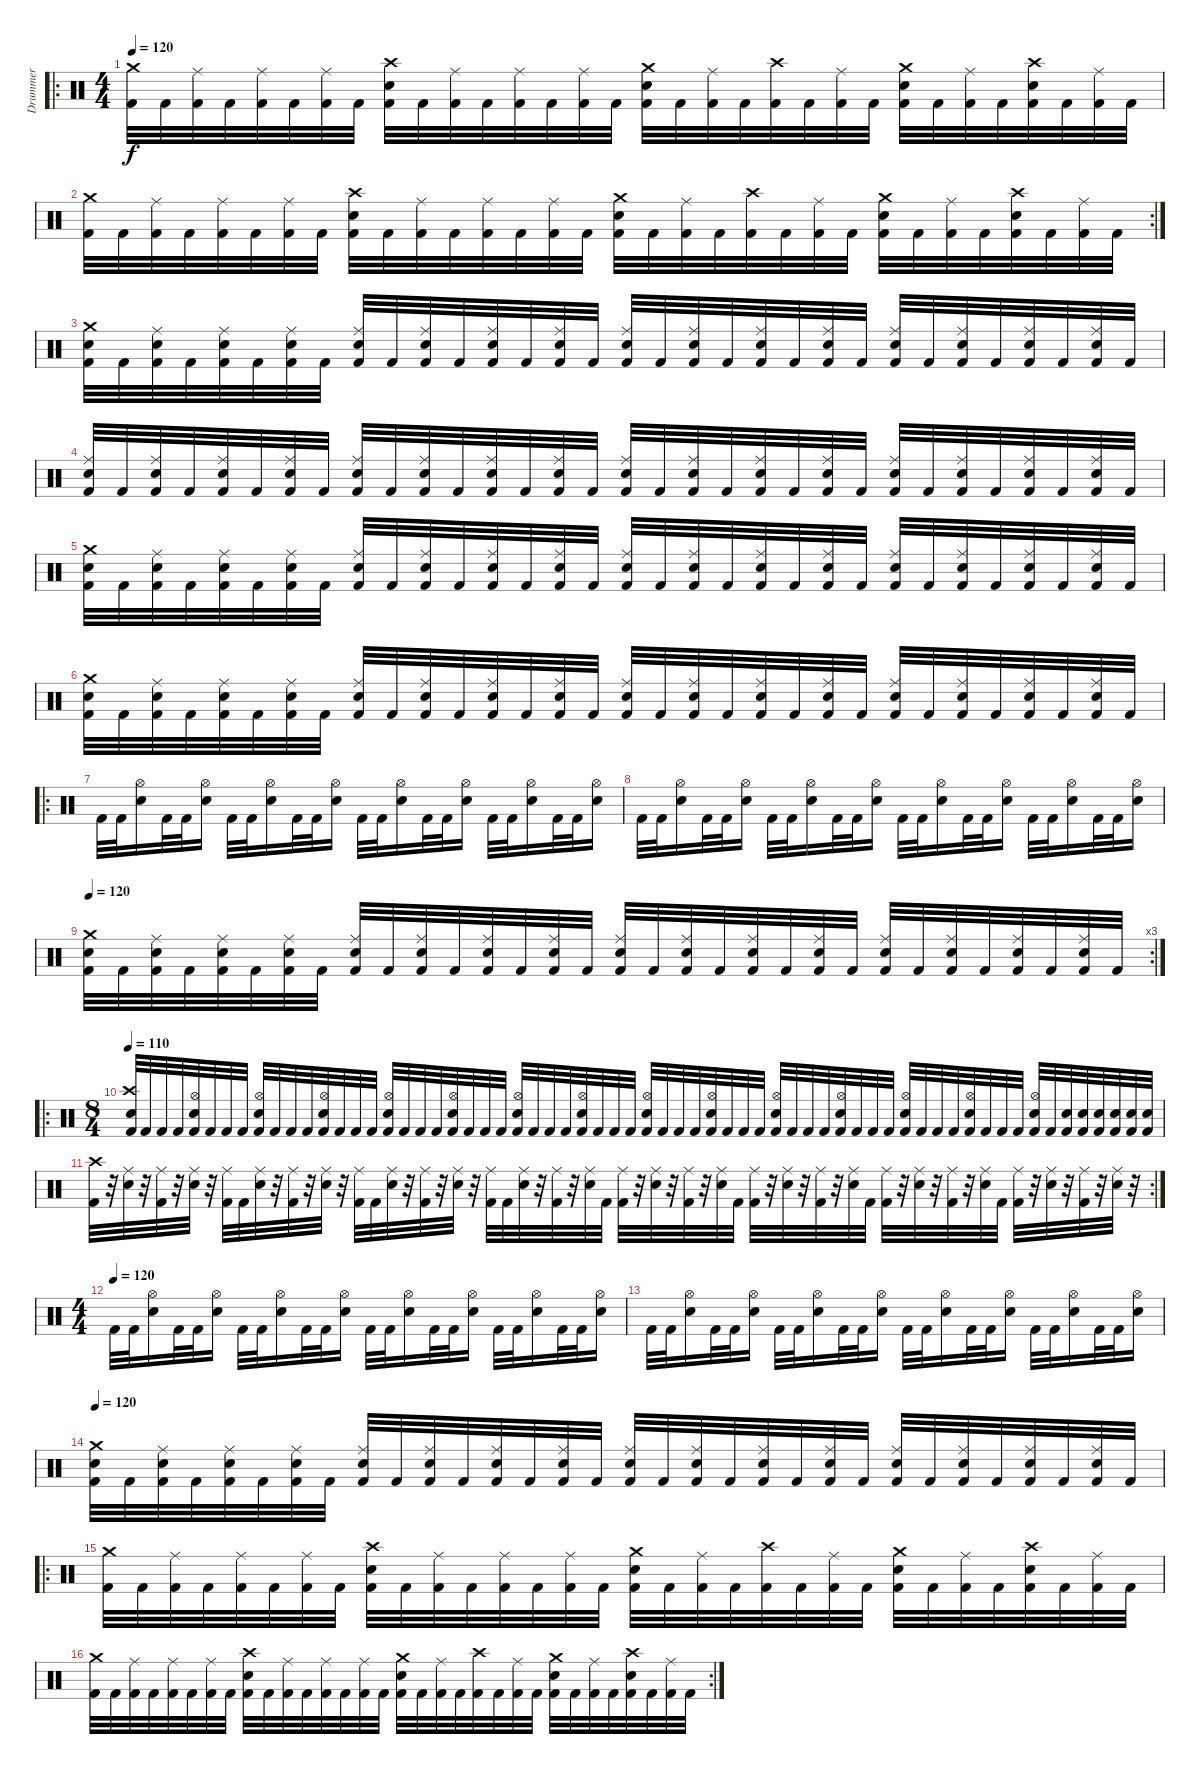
\track ("Drummer" "Drummer") {instrument percussion}
\staff {score}
\articulation defaults
\ro
\ts (4 4)
\tempo 120
\clef neutral
\ks c
("Crash medium (hit)" "Kick (hit) 2").32{dy f} "Kick (hit) 2".32 ("Ride (middle)" "Kick (hit) 2").32 "Kick (hit) 2".32 ("Ride (middle)" "Kick (hit) 2").32 "Kick (hit) 2".32 ("Ride (middle)" "Kick (hit) 2").32 "Kick (hit) 2".32 ("Crash high (hit)" "Electric Snare (hit)" "Kick (hit) 2").32 "Kick (hit) 2".32 ("Ride (middle)" "Kick (hit) 2").32 "Kick (hit) 2".32 ("Ride (middle)" "Kick (hit) 2").32 "Kick (hit) 2".32 ("Ride (middle)" "Kick (hit) 2").32 "Kick (hit) 2".32 ("Crash medium (hit)" "Electric Snare (hit)" "Kick (hit) 2").32 "Kick (hit) 2".32 ("Ride (middle)" "Kick (hit) 2").32 "Kick (hit) 2".32 ("Crash high (hit)" "Kick (hit) 2").32 "Kick (hit) 2".32 ("Ride (middle)" "Kick (hit) 2").32 "Kick (hit) 2".32 ("Crash medium (hit)" "Electric Snare (hit)" "Kick (hit) 2").32 "Kick (hit) 2".32 ("Ride (middle)" "Kick (hit) 2").32 "Kick (hit) 2".32 ("Crash high (hit)" "Electric Snare (hit)" "Kick (hit) 2").32 "Kick (hit) 2".32 ("Ride (middle)" "Kick (hit) 2").32 "Kick (hit) 2".32 |
\rc 2
("Crash medium (hit)" "Kick (hit) 2").32 "Kick (hit) 2".32 ("Ride (middle)" "Kick (hit) 2").32 "Kick (hit) 2".32 ("Ride (middle)" "Kick (hit) 2").32 "Kick (hit) 2".32 ("Ride (middle)" "Kick (hit) 2").32 "Kick (hit) 2".32 ("Crash high (hit)" "Electric Snare (hit)" "Kick (hit) 2").32 "Kick (hit) 2".32 ("Ride (middle)" "Kick (hit) 2").32 "Kick (hit) 2".32 ("Ride (middle)" "Kick (hit) 2").32 "Kick (hit) 2".32 ("Ride (middle)" "Kick (hit) 2").32 "Kick (hit) 2".32 ("Crash medium (hit)" "Electric Snare (hit)" "Kick (hit) 2").32 "Kick (hit) 2".32 ("Ride (middle)" "Kick (hit) 2").32 "Kick (hit) 2".32 ("Crash high (hit)" "Kick (hit) 2").32 "Kick (hit) 2".32 ("Ride (middle)" "Kick (hit) 2").32 "Kick (hit) 2".32 ("Crash medium (hit)" "Electric Snare (hit)" "Kick (hit) 2").32 "Kick (hit) 2".32 ("Ride (middle)" "Kick (hit) 2").32 "Kick (hit) 2".32 ("Crash high (hit)" "Electric Snare (hit)" "Kick (hit) 2").32 "Kick (hit) 2".32 ("Ride (middle)" "Kick (hit) 2").32 "Kick (hit) 2".32 |
("Crash medium (hit)" "Electric Snare (hit)" "Kick (hit) 2").32 "Kick (hit) 2".32 ("Ride (middle)" "Electric Snare (hit)" "Kick (hit) 2").32 "Kick (hit) 2".32 ("Ride (middle)" "Electric Snare (hit)" "Kick (hit) 2").32 "Kick (hit) 2".32 ("Ride (middle)" "Electric Snare (hit)" "Kick (hit) 2").32 "Kick (hit) 2".32 ("Ride (middle)" "Electric Snare (hit)" "Kick (hit) 2").32 "Kick (hit) 2".32 ("Ride (middle)" "Electric Snare (hit)" "Kick (hit) 2").32 "Kick (hit) 2".32 ("Ride (middle)" "Electric Snare (hit)" "Kick (hit) 2").32 "Kick (hit) 2".32 ("Ride (middle)" "Electric Snare (hit)" "Kick (hit) 2").32 "Kick (hit) 2".32 ("Ride (middle)" "Electric Snare (hit)" "Kick (hit) 2").32 "Kick (hit) 2".32 ("Ride (middle)" "Electric Snare (hit)" "Kick (hit) 2").32 "Kick (hit) 2".32 ("Ride (middle)" "Electric Snare (hit)" "Kick (hit) 2").32 "Kick (hit) 2".32 ("Ride (middle)" "Electric Snare (hit)" "Kick (hit) 2").32 "Kick (hit) 2".32 ("Ride (middle)" "Electric Snare (hit)" "Kick (hit) 2").32 "Kick (hit) 2".32 ("Ride (middle)" "Electric Snare (hit)" "Kick (hit) 2").32 "Kick (hit) 2".32 ("Ride (middle)" "Electric Snare (hit)" "Kick (hit) 2").32 "Kick (hit) 2".32 ("Ride (middle)" "Electric Snare (hit)" "Kick (hit) 2").32 "Kick (hit) 2".32 |
("Ride (middle)" "Electric Snare (hit)" "Kick (hit) 2").32 "Kick (hit) 2".32 ("Ride (middle)" "Electric Snare (hit)" "Kick (hit) 2").32 "Kick (hit) 2".32 ("Ride (middle)" "Electric Snare (hit)" "Kick (hit) 2").32 "Kick (hit) 2".32 ("Ride (middle)" "Electric Snare (hit)" "Kick (hit) 2").32 "Kick (hit) 2".32 ("Ride (middle)" "Electric Snare (hit)" "Kick (hit) 2").32 "Kick (hit) 2".32 ("Ride (middle)" "Electric Snare (hit)" "Kick (hit) 2").32 "Kick (hit) 2".32 ("Ride (middle)" "Electric Snare (hit)" "Kick (hit) 2").32 "Kick (hit) 2".32 ("Ride (middle)" "Electric Snare (hit)" "Kick (hit) 2").32 "Kick (hit) 2".32 ("Ride (middle)" "Electric Snare (hit)" "Kick (hit) 2").32 "Kick (hit) 2".32 ("Ride (middle)" "Electric Snare (hit)" "Kick (hit) 2").32 "Kick (hit) 2".32 ("Ride (middle)" "Electric Snare (hit)" "Kick (hit) 2").32 "Kick (hit) 2".32 ("Ride (middle)" "Electric Snare (hit)" "Kick (hit) 2").32 "Kick (hit) 2".32 ("Ride (middle)" "Electric Snare (hit)" "Kick (hit) 2").32 "Kick (hit) 2".32 ("Ride (middle)" "Electric Snare (hit)" "Kick (hit) 2").32 "Kick (hit) 2".32 ("Ride (middle)" "Electric Snare (hit)" "Kick (hit) 2").32 "Kick (hit) 2".32 ("Ride (middle)" "Electric Snare (hit)" "Kick (hit) 2").32 "Kick (hit) 2".32 |
("Crash medium (hit)" "Electric Snare (hit)" "Kick (hit) 2").32 "Kick (hit) 2".32 ("Ride (middle)" "Electric Snare (hit)" "Kick (hit) 2").32 "Kick (hit) 2".32 ("Ride (middle)" "Electric Snare (hit)" "Kick (hit) 2").32 "Kick (hit) 2".32 ("Ride (middle)" "Electric Snare (hit)" "Kick (hit) 2").32 "Kick (hit) 2".32 ("Ride (middle)" "Electric Snare (hit)" "Kick (hit) 2").32 "Kick (hit) 2".32 ("Ride (middle)" "Electric Snare (hit)" "Kick (hit) 2").32 "Kick (hit) 2".32 ("Ride (middle)" "Electric Snare (hit)" "Kick (hit) 2").32 "Kick (hit) 2".32 ("Ride (middle)" "Electric Snare (hit)" "Kick (hit) 2").32 "Kick (hit) 2".32 ("Ride (middle)" "Electric Snare (hit)" "Kick (hit) 2").32 "Kick (hit) 2".32 ("Ride (middle)" "Electric Snare (hit)" "Kick (hit) 2").32 "Kick (hit) 2".32 ("Ride (middle)" "Electric Snare (hit)" "Kick (hit) 2").32 "Kick (hit) 2".32 ("Ride (middle)" "Electric Snare (hit)" "Kick (hit) 2").32 "Kick (hit) 2".32 ("Ride (middle)" "Electric Snare (hit)" "Kick (hit) 2").32 "Kick (hit) 2".32 ("Ride (middle)" "Electric Snare (hit)" "Kick (hit) 2").32 "Kick (hit) 2".32 ("Ride (middle)" "Electric Snare (hit)" "Kick (hit) 2").32 "Kick (hit) 2".32 ("Ride (middle)" "Electric Snare (hit)" "Kick (hit) 2").32 "Kick (hit) 2".32 |
("Crash medium (hit)" "Electric Snare (hit)" "Kick (hit) 2").32 "Kick (hit) 2".32 ("Ride (middle)" "Electric Snare (hit)" "Kick (hit) 2").32 "Kick (hit) 2".32 ("Ride (middle)" "Electric Snare (hit)" "Kick (hit) 2").32 "Kick (hit) 2".32 ("Ride (middle)" "Electric Snare (hit)" "Kick (hit) 2").32 "Kick (hit) 2".32 ("Ride (middle)" "Electric Snare (hit)" "Kick (hit) 2").32 "Kick (hit) 2".32 ("Ride (middle)" "Electric Snare (hit)" "Kick (hit) 2").32 "Kick (hit) 2".32 ("Ride (middle)" "Electric Snare (hit)" "Kick (hit) 2").32 "Kick (hit) 2".32 ("Ride (middle)" "Electric Snare (hit)" "Kick (hit) 2").32 "Kick (hit) 2".32 ("Ride (middle)" "Electric Snare (hit)" "Kick (hit) 2").32 "Kick (hit) 2".32 ("Ride (middle)" "Electric Snare (hit)" "Kick (hit) 2").32 "Kick (hit) 2".32 ("Ride (middle)" "Electric Snare (hit)" "Kick (hit) 2").32 "Kick (hit) 2".32 ("Ride (middle)" "Electric Snare (hit)" "Kick (hit) 2").32 "Kick (hit) 2".32 ("Ride (middle)" "Electric Snare (hit)" "Kick (hit) 2").32 "Kick (hit) 2".32 ("Ride (middle)" "Electric Snare (hit)" "Kick (hit) 2").32 "Kick (hit) 2".32 ("Ride (middle)" "Electric Snare (hit)" "Kick (hit) 2").32 "Kick (hit) 2".32 ("Ride (middle)" "Electric Snare (hit)" "Kick (hit) 2").32 "Kick (hit) 2".32 |
\ro "Kick (hit) 2".32 "Kick (hit) 2".32
("Hi-Hat (open)" "Snare (hit) 2").16 "Kick (hit) 2".32 "Kick (hit) 2".32 ("Hi-Hat (open)" "Snare (hit) 2").16 "Kick (hit) 2".32 "Kick (hit) 2".32 ("Snare (hit) 2" "Hi-Hat (open)").16 "Kick (hit) 2".32 "Kick (hit) 2".32 ("Hi-Hat (open)" "Snare (hit) 2").16 "Kick (hit) 2".32 "Kick (hit) 2".32 ("Hi-Hat (open)" "Snare (hit) 2").16 "Kick (hit) 2".32 "Kick (hit) 2".32 ("Hi-Hat (open)" "Snare (hit) 2").16 "Kick (hit) 2".32 "Kick (hit) 2".32 ("Hi-Hat (open)" "Snare (hit) 2").16 "Kick (hit) 2".32 "Kick (hit) 2".32 ("Hi-Hat (open)" "Snare (hit) 2").16 |
"Kick (hit) 2".32 "Kick (hit) 2".32 ("Hi-Hat (open)" "Snare (hit) 2").16 "Kick (hit) 2".32 "Kick (hit) 2".32 ("Hi-Hat (open)" "Snare (hit) 2").16 "Kick (hit) 2".32 "Kick (hit) 2".32 ("Snare (hit) 2" "Hi-Hat (open)").16 "Kick (hit) 2".32 "Kick (hit) 2".32 ("Hi-Hat (open)" "Snare (hit) 2").16 "Kick (hit) 2".32 "Kick (hit) 2".32 ("Hi-Hat (open)" "Snare (hit) 2").16 "Kick (hit) 2".32 "Kick (hit) 2".32 ("Hi-Hat (open)" "Snare (hit) 2").16 "Kick (hit) 2".32 "Kick (hit) 2".32 ("Hi-Hat (open)" "Snare (hit) 2").16 "Kick (hit) 2".32 "Kick (hit) 2".32 ("Hi-Hat (open)" "Snare (hit) 2").16 |
\rc 3
\tempo 120
("Crash medium (hit)" "Electric Snare (hit)" "Kick (hit) 2").32 "Kick (hit) 2".32 ("Ride (middle)" "Electric Snare (hit)" "Kick (hit) 2").32 "Kick (hit) 2".32 ("Ride (middle)" "Electric Snare (hit)" "Kick (hit) 2").32 "Kick (hit) 2".32 ("Ride (middle)" "Electric Snare (hit)" "Kick (hit) 2").32 "Kick (hit) 2".32 ("Ride (middle)" "Electric Snare (hit)" "Kick (hit) 2").32 "Kick (hit) 2".32 ("Ride (middle)" "Electric Snare (hit)" "Kick (hit) 2").32 "Kick (hit) 2".32 ("Ride (middle)" "Electric Snare (hit)" "Kick (hit) 2").32 "Kick (hit) 2".32 ("Ride (middle)" "Electric Snare (hit)" "Kick (hit) 2").32 "Kick (hit) 2".32 ("Ride (middle)" "Electric Snare (hit)" "Kick (hit) 2").32 "Kick (hit) 2".32 ("Ride (middle)" "Electric Snare (hit)" "Kick (hit) 2").32 "Kick (hit) 2".32 ("Ride (middle)" "Electric Snare (hit)" "Kick (hit) 2").32 "Kick (hit) 2".32 ("Ride (middle)" "Electric Snare (hit)" "Kick (hit) 2").32 "Kick (hit) 2".32 ("Ride (middle)" "Electric Snare (hit)" "Kick (hit) 2").32 "Kick (hit) 2".32 ("Ride (middle)" "Electric Snare (hit)" "Kick (hit) 2").32 "Kick (hit) 2".32 ("Ride (middle)" "Electric Snare (hit)" "Kick (hit) 2").32 "Kick (hit) 2".32 ("Ride (middle)" "Electric Snare (hit)" "Kick (hit) 2").32 "Kick (hit) 2".32 |
\ro
\ts (8 4)
\tempo 110
("Crash high (hit)" "Snare (hit) 2" "Kick (hit) 2").32 "Kick (hit) 2".32 "Kick (hit) 2".32 "Kick (hit) 2".32 ("Hi-Hat (open)" "Snare (hit) 2" "Kick (hit) 2").32 "Kick (hit) 2".32 "Kick (hit) 2".32 "Kick (hit) 2".32 ("Hi-Hat (open)" "Snare (hit) 2" "Kick (hit) 2").32 "Kick (hit) 2".32 "Kick (hit) 2".32 "Kick (hit) 2".32 ("Hi-Hat (open)" "Snare (hit) 2" "Kick (hit) 2").32 "Kick (hit) 2".32 "Kick (hit) 2".32 "Kick (hit) 2".32 ("Hi-Hat (open)" "Snare (hit) 2" "Kick (hit) 2").32 "Kick (hit) 2".32 "Kick (hit) 2".32 "Kick (hit) 2".32 ("Hi-Hat (open)" "Snare (hit) 2" "Kick (hit) 2").32 "Kick (hit) 2".32 "Kick (hit) 2".32 "Kick (hit) 2".32 ("Hi-Hat (open)" "Snare (hit) 2" "Kick (hit) 2").32 "Kick (hit) 2".32 "Kick (hit) 2".32 "Kick (hit) 2".32 ("Hi-Hat (open)" "Snare (hit) 2" "Kick (hit) 2").32 "Kick (hit) 2".32 "Kick (hit) 2".32 "Kick (hit) 2".32 ("Hi-Hat (open)" "Snare (hit) 2" "Kick (hit) 2").32 "Kick (hit) 2".32 "Kick (hit) 2".32 "Kick (hit) 2".32 ("Hi-Hat (open)" "Snare (hit) 2" "Kick (hit) 2").32 "Kick (hit) 2".32 "Kick (hit) 2".32 "Kick (hit) 2".32 ("Hi-Hat (open)" "Snare (hit) 2" "Kick (hit) 2").32 "Kick (hit) 2".32 "Kick (hit) 2".32 "Kick (hit) 2".32 ("Hi-Hat (open)" "Snare (hit) 2" "Kick (hit) 2").32 "Kick (hit) 2".32 "Kick (hit) 2".32 "Kick (hit) 2".32 ("Hi-Hat (open)" "Snare (hit) 2" "Kick (hit) 2").32 "Kick (hit) 2".32 "Kick (hit) 2".32 "Kick (hit) 2".32 ("Hi-Hat (open)" "Snare (hit) 2" "Kick (hit) 2").32 "Kick (hit) 2".32 "Kick (hit) 2".32 "Kick (hit) 2".32 ("Hi-Hat (open)" "Snare (hit) 2" "Kick (hit) 2").32 "Kick (hit) 2".32 ("Snare (hit) 2" "Kick (hit) 2").32 ("Snare (hit) 2" "Kick (hit) 2").32 ("Snare (hit) 2" "Kick (hit) 2").32 ("Snare (hit) 2" "Kick (hit) 2").32 ("Snare (hit) 2" "Kick (hit) 2").32 ("Snare (hit) 2" "Kick (hit) 2").32 |
\rc 2
("Crash high (hit)" "Kick (hit) 2").32 r.32 ("Ride (middle)" "Snare (hit) 2").32 r.32 ("Ride (middle)" "Kick (hit) 2").32 r.32 ("Ride (middle)" "Snare (hit) 2").32 r.32 ("Ride (middle)" "Kick (hit) 2").32 "Kick (hit) 2".32 ("Ride (middle)" "Snare (hit) 2").32 r.32 ("Ride (middle)" "Kick (hit) 2").32 r.32 ("Ride (middle)" "Snare (hit) 2").32 r.32 ("Ride (middle)" "Kick (hit) 2").32 "Kick (hit) 2".32 ("Ride (middle)" "Snare (hit) 2").32 r.32 ("Ride (middle)" "Kick (hit) 2").32 r.32 ("Ride (middle)" "Snare (hit) 2").32 r.32 ("Ride (middle)" "Kick (hit) 2").32 "Kick (hit) 2".32 ("Ride (middle)" "Snare (hit) 2").32 r.32 ("Ride (middle)" "Kick (hit) 2").32 r.32 ("Ride (middle)" "Snare (hit) 2").32 "Kick (hit) 2".32 ("Ride (middle)" "Kick (hit) 2").32 r.32 ("Ride (middle)" "Snare (hit) 2").32 r.32 ("Ride (middle)" "Kick (hit) 2").32 r.32 ("Ride (middle)" "Snare (hit) 2").32 "Kick (hit) 2".32 ("Ride (middle)" "Kick (hit) 2").32 r.32 ("Ride (middle)" "Snare (hit) 2").32 r.32 ("Ride (middle)" "Kick (hit) 2").32 r.32 ("Ride (middle)" "Snare (hit) 2").32 "Kick (hit) 2".32 ("Ride (middle)" "Kick (hit) 2").32 r.32 ("Ride (middle)" "Snare (hit) 2").32 r.32 ("Ride (middle)" "Kick (hit) 2").32 r.32 ("Ride (middle)" "Snare (hit) 2").32 "Kick (hit) 2".32 ("Ride (middle)" "Kick (hit) 2").32 r.32 ("Ride (middle)" "Snare (hit) 2").32 r.32 ("Ride (middle)" "Kick (hit) 2").32 r.32 ("Ride (middle)" "Snare (hit) 2").32 r.32 |
\ts (4 4)
\tempo (120)
"Kick (hit) 2".32 "Kick (hit) 2".32 ("Hi-Hat (open)" "Snare (hit) 2").16 "Kick (hit) 2".32 "Kick (hit) 2".32 ("Hi-Hat (open)" "Snare (hit) 2").16 "Kick (hit) 2".32 "Kick (hit) 2".32 ("Snare (hit) 2" "Hi-Hat (open)").16 "Kick (hit) 2".32 "Kick (hit) 2".32 ("Hi-Hat (open)" "Snare (hit) 2").16 "Kick (hit) 2".32 "Kick (hit) 2".32 ("Hi-Hat (open)" "Snare (hit) 2").16 "Kick (hit) 2".32 "Kick (hit) 2".32 ("Hi-Hat (open)" "Snare (hit) 2").16 "Kick (hit) 2".32 "Kick (hit) 2".32 ("Hi-Hat (open)" "Snare (hit) 2").16 "Kick (hit) 2".32 "Kick (hit) 2".32 ("Hi-Hat (open)" "Snare (hit) 2").16 |
"Kick (hit) 2".32 "Kick (hit) 2".32 ("Hi-Hat (open)" "Snare (hit) 2").16 "Kick (hit) 2".32 "Kick (hit) 2".32 ("Hi-Hat (open)" "Snare (hit) 2").16 "Kick (hit) 2".32 "Kick (hit) 2".32 ("Snare (hit) 2" "Hi-Hat (open)").16 "Kick (hit) 2".32 "Kick (hit) 2".32 ("Hi-Hat (open)" "Snare (hit) 2").16 "Kick (hit) 2".32 "Kick (hit) 2".32 ("Hi-Hat (open)" "Snare (hit) 2").16 "Kick (hit) 2".32 "Kick (hit) 2".32 ("Hi-Hat (open)" "Snare (hit) 2").16 "Kick (hit) 2".32 "Kick (hit) 2".32 ("Hi-Hat (open)" "Snare (hit) 2").16 "Kick (hit) 2".32 "Kick (hit) 2".32 ("Hi-Hat (open)" "Snare (hit) 2").16 |
\tempo 120
("Crash medium (hit)" "Electric Snare (hit)" "Kick (hit) 2").32 "Kick (hit) 2".32 ("Ride (middle)" "Electric Snare (hit)" "Kick (hit) 2").32 "Kick (hit) 2".32 ("Ride (middle)" "Electric Snare (hit)" "Kick (hit) 2").32 "Kick (hit) 2".32 ("Ride (middle)" "Electric Snare (hit)" "Kick (hit) 2").32 "Kick (hit) 2".32 ("Ride (middle)" "Electric Snare (hit)" "Kick (hit) 2").32 "Kick (hit) 2".32 ("Ride (middle)" "Electric Snare (hit)" "Kick (hit) 2").32 "Kick (hit) 2".32 ("Ride (middle)" "Electric Snare (hit)" "Kick (hit) 2").32 "Kick (hit) 2".32 ("Ride (middle)" "Electric Snare (hit)" "Kick (hit) 2").32 "Kick (hit) 2".32 ("Ride (middle)" "Electric Snare (hit)" "Kick (hit) 2").32 "Kick (hit) 2".32 ("Ride (middle)" "Electric Snare (hit)" "Kick (hit) 2").32 "Kick (hit) 2".32 ("Ride (middle)" "Electric Snare (hit)" "Kick (hit) 2").32 "Kick (hit) 2".32 ("Ride (middle)" "Electric Snare (hit)" "Kick (hit) 2").32 "Kick (hit) 2".32 ("Ride (middle)" "Electric Snare (hit)" "Kick (hit) 2").32 "Kick (hit) 2".32 ("Ride (middle)" "Electric Snare (hit)" "Kick (hit) 2").32 "Kick (hit) 2".32 ("Ride (middle)" "Electric Snare (hit)" "Kick (hit) 2").32 "Kick (hit) 2".32 ("Ride (middle)" "Electric Snare (hit)" "Kick (hit) 2").32 "Kick (hit) 2".32 |
\ro
("Crash medium (hit)" "Kick (hit) 2").32 "Kick (hit) 2".32 ("Ride (middle)" "Kick (hit) 2").32 "Kick (hit) 2".32 ("Ride (middle)" "Kick (hit) 2").32 "Kick (hit) 2".32 ("Ride (middle)" "Kick (hit) 2").32 "Kick (hit) 2".32 ("Crash high (hit)" "Electric Snare (hit)" "Kick (hit) 2").32 "Kick (hit) 2".32 ("Ride (middle)" "Kick (hit) 2").32 "Kick (hit) 2".32 ("Ride (middle)" "Kick (hit) 2").32 "Kick (hit) 2".32 ("Ride (middle)" "Kick (hit) 2").32 "Kick (hit) 2".32 ("Crash medium (hit)" "Electric Snare (hit)" "Kick (hit) 2").32 "Kick (hit) 2".32 ("Ride (middle)" "Kick (hit) 2").32 "Kick (hit) 2".32 ("Crash high (hit)" "Kick (hit) 2").32 "Kick (hit) 2".32 ("Ride (middle)" "Kick (hit) 2").32 "Kick (hit) 2".32 ("Crash medium (hit)" "Electric Snare (hit)" "Kick (hit) 2").32 "Kick (hit) 2".32 ("Ride (middle)" "Kick (hit) 2").32 "Kick (hit) 2".32 ("Crash high (hit)" "Electric Snare (hit)" "Kick (hit) 2").32 "Kick (hit) 2".32 ("Ride (middle)" "Kick (hit) 2").32 "Kick (hit) 2".32 |
\rc 2
("Crash medium (hit)" "Kick (hit) 2").32 "Kick (hit) 2".32 ("Ride (middle)" "Kick (hit) 2").32 "Kick (hit) 2".32 ("Ride (middle)" "Kick (hit) 2").32 "Kick (hit) 2".32 ("Ride (middle)" "Kick (hit) 2").32 "Kick (hit) 2".32 ("Crash high (hit)" "Electric Snare (hit)" "Kick (hit) 2").32 "Kick (hit) 2".32 ("Ride (middle)" "Kick (hit) 2").32 "Kick (hit) 2".32 ("Ride (middle)" "Kick (hit) 2").32 "Kick (hit) 2".32 ("Ride (middle)" "Kick (hit) 2").32 "Kick (hit) 2".32 ("Crash medium (hit)" "Electric Snare (hit)" "Kick (hit) 2").32 "Kick (hit) 2".32 ("Ride (middle)" "Kick (hit) 2").32 "Kick (hit) 2".32 ("Crash high (hit)" "Kick (hit) 2").32 "Kick (hit) 2".32 ("Ride (middle)" "Kick (hit) 2").32 "Kick (hit) 2".32 ("Crash medium (hit)" "Electric Snare (hit)" "Kick (hit) 2").32 "Kick (hit) 2".32 ("Ride (middle)" "Kick (hit) 2").32 "Kick (hit) 2".32 ("Crash high (hit)" "Electric Snare (hit)" "Kick (hit) 2").32 "Kick (hit) 2".32 ("Ride (middle)" "Kick (hit) 2").32 "Kick (hit) 2".32
